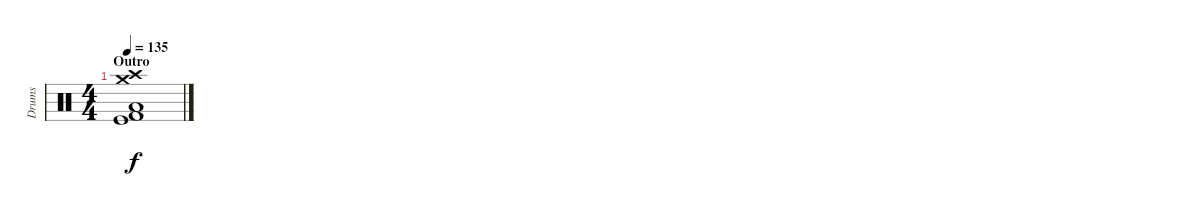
\track ("Drums" "Drums") {instrument percussion}
\staff {score}
\articulation defaults
\ts (4 4)
\section ("" "Outro")
\tempo 135
\clef neutral
\ks c
("Low Tom (hit)" "Kick (hit)" "Crash medium (hit)" "Kick (hit) 2" "Crash high (hit)").1{dy f}
